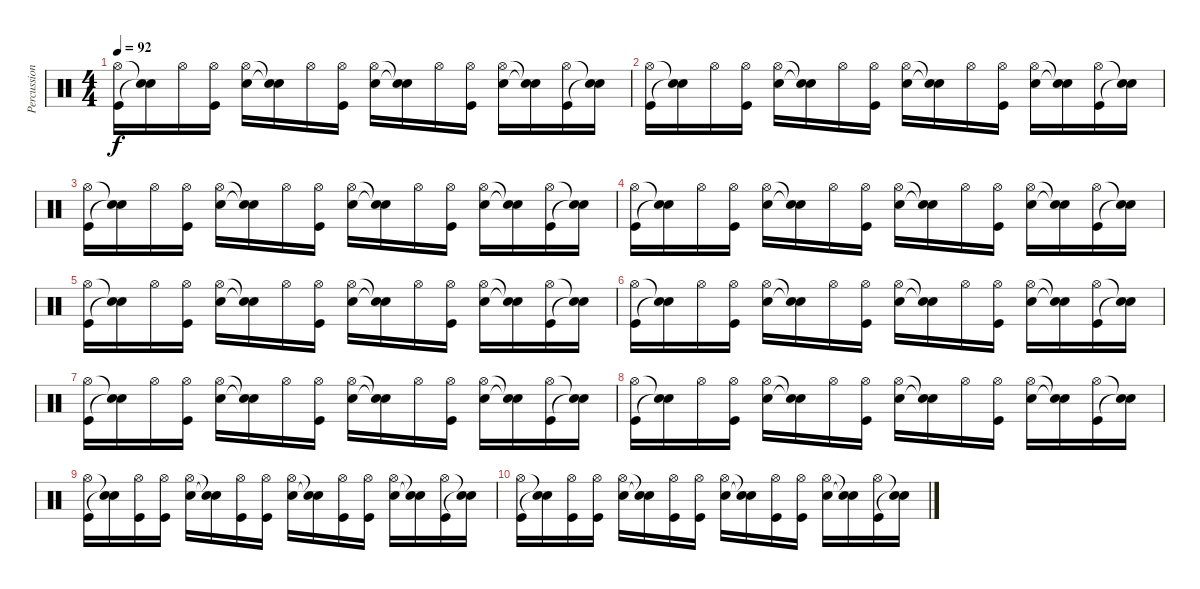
\track ("Percussion" "Percussion") {instrument percussion}
\staff {score}
\articulation defaults
\ts (4 4)
\tempo 92
\clef neutral
\ks c
("Hi-Hat (open)" "Kick (hit)").16{dy f} ("Snare (hit)"{t} "Snare (hit)"{t}).16 "Hi-Hat (open)".16 ("Hi-Hat (open)" "Kick (hit)").16 ("Hi-Hat (open)" "Snare (hit) 2").16 ("Snare (hit)"{t} "Snare (hit)"{t}).16 "Hi-Hat (open)".16 ("Hi-Hat (open)" "Kick (hit)").16 ("Hi-Hat (open)" "Snare (hit) 2").16 ("Snare (hit)"{t} "Snare (hit)"{t}).16 "Hi-Hat (open)".16 ("Hi-Hat (open)" "Kick (hit)").16 ("Hi-Hat (open)" "Snare (hit) 2").16 ("Snare (hit)"{t} "Snare (hit)"{t}).16 ("Hi-Hat (open)" "Kick (hit)").16 ("Snare (hit)"{t} "Snare (hit)"{t}).16 |
("Hi-Hat (open)" "Kick (hit)").16 ("Snare (hit)"{t} "Snare (hit)"{t}).16 "Hi-Hat (open)".16 ("Hi-Hat (open)" "Kick (hit)").16 ("Hi-Hat (open)" "Snare (hit) 2").16 ("Snare (hit)"{t} "Snare (hit)"{t}).16 "Hi-Hat (open)".16 ("Hi-Hat (open)" "Kick (hit)").16 ("Hi-Hat (open)" "Snare (hit) 2").16 ("Snare (hit)"{t} "Snare (hit)"{t}).16 "Hi-Hat (open)".16 ("Hi-Hat (open)" "Kick (hit)").16 ("Hi-Hat (open)" "Snare (hit) 2").16 ("Snare (hit)"{t} "Snare (hit)"{t}).16 ("Hi-Hat (open)" "Kick (hit)").16 ("Snare (hit)"{t} "Snare (hit)"{t}).16 |
("Hi-Hat (open)" "Kick (hit)").16 ("Snare (hit)"{t} "Snare (hit)"{t}).16 "Hi-Hat (open)".16 ("Hi-Hat (open)" "Kick (hit)").16 ("Hi-Hat (open)" "Snare (hit) 2").16 ("Snare (hit)"{t} "Snare (hit)"{t}).16 "Hi-Hat (open)".16 ("Hi-Hat (open)" "Kick (hit)").16 ("Hi-Hat (open)" "Snare (hit) 2").16 ("Snare (hit)"{t} "Snare (hit)"{t}).16 "Hi-Hat (open)".16 ("Hi-Hat (open)" "Kick (hit)").16 ("Hi-Hat (open)" "Snare (hit) 2").16 ("Snare (hit)"{t} "Snare (hit)"{t}).16 ("Hi-Hat (open)" "Kick (hit)").16 ("Snare (hit)"{t} "Snare (hit)"{t}).16 |
("Hi-Hat (open)" "Kick (hit)").16 ("Snare (hit)"{t} "Snare (hit)"{t}).16 "Hi-Hat (open)".16 ("Hi-Hat (open)" "Kick (hit)").16 ("Hi-Hat (open)" "Snare (hit) 2").16 ("Snare (hit)"{t} "Snare (hit)"{t}).16 "Hi-Hat (open)".16 ("Hi-Hat (open)" "Kick (hit)").16 ("Hi-Hat (open)" "Snare (hit) 2").16 ("Snare (hit)"{t} "Snare (hit)"{t}).16 "Hi-Hat (open)".16 ("Hi-Hat (open)" "Kick (hit)").16 ("Hi-Hat (open)" "Snare (hit) 2").16 ("Snare (hit)"{t} "Snare (hit)"{t}).16 ("Hi-Hat (open)" "Kick (hit)").16 ("Snare (hit)"{t} "Snare (hit)"{t}).16 |
("Hi-Hat (open)" "Kick (hit)").16 ("Snare (hit)"{t} "Snare (hit)"{t}).16 "Hi-Hat (open)".16 ("Hi-Hat (open)" "Kick (hit)").16 ("Hi-Hat (open)" "Snare (hit) 2").16 ("Snare (hit)"{t} "Snare (hit)"{t}).16 "Hi-Hat (open)".16 ("Hi-Hat (open)" "Kick (hit)").16 ("Hi-Hat (open)" "Snare (hit) 2").16 ("Snare (hit)"{t} "Snare (hit)"{t}).16 "Hi-Hat (open)".16 ("Hi-Hat (open)" "Kick (hit)").16 ("Hi-Hat (open)" "Snare (hit) 2").16 ("Snare (hit)"{t} "Snare (hit)"{t}).16 ("Hi-Hat (open)" "Kick (hit)").16 ("Snare (hit)"{t} "Snare (hit)"{t}).16 |
("Hi-Hat (open)" "Kick (hit)").16 ("Snare (hit)"{t} "Snare (hit)"{t}).16 "Hi-Hat (open)".16 ("Hi-Hat (open)" "Kick (hit)").16 ("Hi-Hat (open)" "Snare (hit) 2").16 ("Snare (hit)"{t} "Snare (hit)"{t}).16 "Hi-Hat (open)".16 ("Hi-Hat (open)" "Kick (hit)").16 ("Hi-Hat (open)" "Snare (hit) 2").16 ("Snare (hit)"{t} "Snare (hit)"{t}).16 "Hi-Hat (open)".16 ("Hi-Hat (open)" "Kick (hit)").16 ("Hi-Hat (open)" "Snare (hit) 2").16 ("Snare (hit)"{t} "Snare (hit)"{t}).16 ("Hi-Hat (open)" "Kick (hit)").16 ("Snare (hit)"{t} "Snare (hit)"{t}).16 |
("Hi-Hat (open)" "Kick (hit)").16 ("Snare (hit)"{t} "Snare (hit)"{t}).16 "Hi-Hat (open)".16 ("Hi-Hat (open)" "Kick (hit)").16 ("Hi-Hat (open)" "Snare (hit) 2").16 ("Snare (hit)"{t} "Snare (hit)"{t}).16 "Hi-Hat (open)".16 ("Hi-Hat (open)" "Kick (hit)").16 ("Hi-Hat (open)" "Snare (hit) 2").16 ("Snare (hit)"{t} "Snare (hit)"{t}).16 "Hi-Hat (open)".16 ("Hi-Hat (open)" "Kick (hit)").16 ("Hi-Hat (open)" "Snare (hit) 2").16 ("Snare (hit)"{t} "Snare (hit)"{t}).16 ("Hi-Hat (open)" "Kick (hit)").16 ("Snare (hit)"{t} "Snare (hit)"{t}).16 |
("Hi-Hat (open)" "Kick (hit)").16 ("Snare (hit)"{t} "Snare (hit)"{t}).16 "Hi-Hat (open)".16 ("Hi-Hat (open)" "Kick (hit)").16 ("Hi-Hat (open)" "Snare (hit) 2").16 ("Snare (hit)"{t} "Snare (hit)"{t}).16 "Hi-Hat (open)".16 ("Hi-Hat (open)" "Kick (hit)").16 ("Hi-Hat (open)" "Snare (hit) 2").16 ("Snare (hit)"{t} "Snare (hit)"{t}).16 "Hi-Hat (open)".16 ("Hi-Hat (open)" "Kick (hit)").16 ("Hi-Hat (open)" "Snare (hit) 2").16 ("Snare (hit)"{t} "Snare (hit)"{t}).16 ("Hi-Hat (open)" "Kick (hit)").16 ("Snare (hit)"{t} "Snare (hit)"{t}).16 |
("Hi-Hat (open)" "Kick (hit)").16 ("Snare (hit)"{t} "Snare (hit)"{t}).16 ("Hi-Hat (open)" "Kick (hit)").16 ("Hi-Hat (open)" "Kick (hit)").16 ("Hi-Hat (open)" "Snare (hit) 2").16 ("Snare (hit)"{t} "Snare (hit)"{t}).16 ("Hi-Hat (open)" "Kick (hit)").16 ("Hi-Hat (open)" "Kick (hit)").16 ("Hi-Hat (open)" "Snare (hit) 2").16 ("Snare (hit)"{t} "Snare (hit)"{t}).16 ("Hi-Hat (open)" "Kick (hit)").16 ("Hi-Hat (open)" "Kick (hit)").16 ("Hi-Hat (open)" "Snare (hit) 2").16 ("Snare (hit)"{t} "Snare (hit)"{t}).16 ("Hi-Hat (open)" "Kick (hit)").16 ("Snare (hit)"{t} "Snare (hit)"{t}).16 |
("Hi-Hat (open)" "Kick (hit)").16 ("Snare (hit)"{t} "Snare (hit)"{t}).16 ("Hi-Hat (open)" "Kick (hit)").16 ("Hi-Hat (open)" "Kick (hit)").16 ("Hi-Hat (open)" "Snare (hit) 2").16 ("Snare (hit)"{t} "Snare (hit)"{t}).16 ("Hi-Hat (open)" "Kick (hit)").16 ("Hi-Hat (open)" "Kick (hit)").16 ("Hi-Hat (open)" "Snare (hit) 2").16 ("Snare (hit)"{t} "Snare (hit)"{t}).16 ("Hi-Hat (open)" "Kick (hit)").16 ("Hi-Hat (open)" "Kick (hit)").16 ("Hi-Hat (open)" "Snare (hit) 2").16 ("Snare (hit)"{t} "Snare (hit)"{t}).16 ("Hi-Hat (open)" "Kick (hit)").16 ("Snare (hit)"{t} "Snare (hit)"{t}).16
